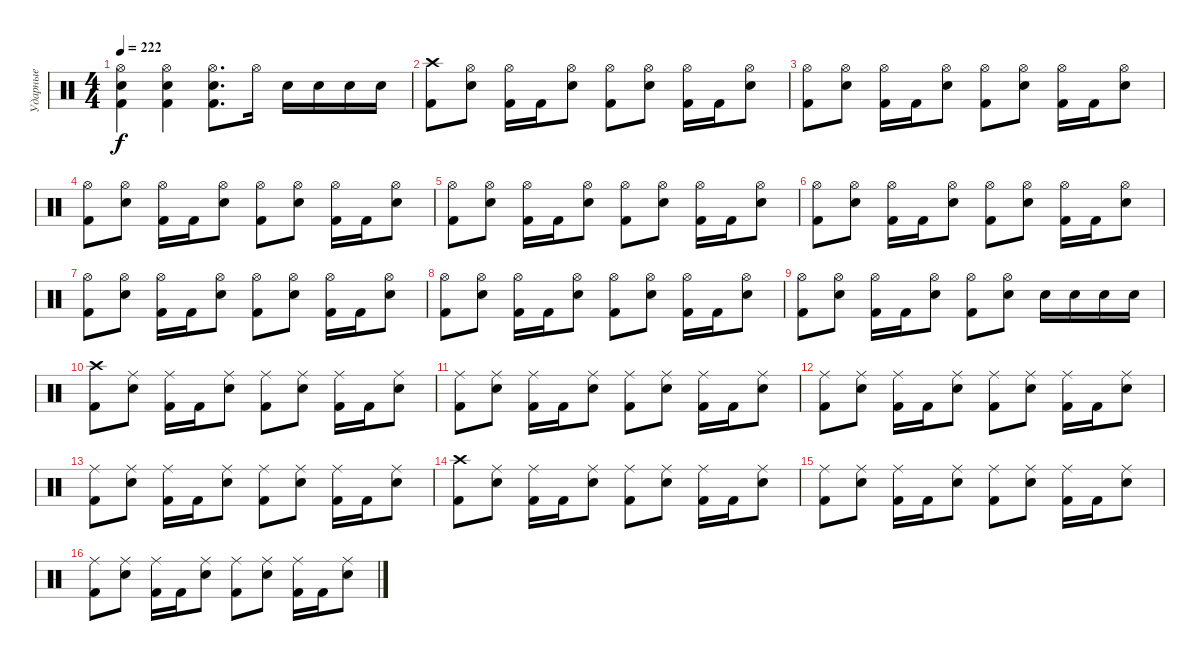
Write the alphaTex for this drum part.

\track ("Ударные" "Ударные") {instrument percussion}
\staff {score}
\articulation defaults
\ts (4 4)
\tempo 222
\clef neutral
\ks c
("Hi-Hat (open)" "Kick (hit) 2" "Electric Snare (hit)").4{dy f} ("Hi-Hat (open)" "Kick (hit) 2" "Electric Snare (hit)").4 ("Hi-Hat (open)" "Kick (hit) 2" "Electric Snare (hit)").8{d} "Hi-Hat (open)".16 "Electric Snare (hit)".16 "Electric Snare (hit)".16 "Electric Snare (hit)".16 "Electric Snare (hit)".16 |
("Crash high (hit)" "Kick (hit) 2").8 ("Hi-Hat (open)" "Electric Snare (hit)").8 ("Hi-Hat (open)" "Kick (hit) 2").16 "Kick (hit) 2".16 ("Hi-Hat (open)" "Electric Snare (hit)").8 ("Hi-Hat (open)" "Kick (hit) 2").8 ("Hi-Hat (open)" "Electric Snare (hit)").8 ("Hi-Hat (open)" "Kick (hit) 2").16 "Kick (hit) 2".16 ("Hi-Hat (open)" "Electric Snare (hit)").8 |
("Hi-Hat (open)" "Kick (hit) 2").8 ("Hi-Hat (open)" "Electric Snare (hit)").8 ("Hi-Hat (open)" "Kick (hit) 2").16 "Kick (hit) 2".16 ("Hi-Hat (open)" "Electric Snare (hit)").8 ("Hi-Hat (open)" "Kick (hit) 2").8 ("Hi-Hat (open)" "Electric Snare (hit)").8 ("Hi-Hat (open)" "Kick (hit) 2").16 "Kick (hit) 2".16 ("Hi-Hat (open)" "Electric Snare (hit)").8 |
("Hi-Hat (open)" "Kick (hit) 2").8 ("Hi-Hat (open)" "Electric Snare (hit)").8 ("Hi-Hat (open)" "Kick (hit) 2").16 "Kick (hit) 2".16 ("Hi-Hat (open)" "Electric Snare (hit)").8 ("Hi-Hat (open)" "Kick (hit) 2").8 ("Hi-Hat (open)" "Electric Snare (hit)").8 ("Hi-Hat (open)" "Kick (hit) 2").16 "Kick (hit) 2".16 ("Hi-Hat (open)" "Electric Snare (hit)").8 |
("Hi-Hat (open)" "Kick (hit) 2").8 ("Hi-Hat (open)" "Electric Snare (hit)").8 ("Hi-Hat (open)" "Kick (hit) 2").16 "Kick (hit) 2".16 ("Hi-Hat (open)" "Electric Snare (hit)").8 ("Hi-Hat (open)" "Kick (hit) 2").8 ("Hi-Hat (open)" "Electric Snare (hit)").8 ("Hi-Hat (open)" "Kick (hit) 2").16 "Kick (hit) 2".16 ("Hi-Hat (open)" "Electric Snare (hit)").8 |
("Hi-Hat (open)" "Kick (hit) 2").8 ("Hi-Hat (open)" "Electric Snare (hit)").8 ("Hi-Hat (open)" "Kick (hit) 2").16 "Kick (hit) 2".16 ("Hi-Hat (open)" "Electric Snare (hit)").8 ("Hi-Hat (open)" "Kick (hit) 2").8 ("Hi-Hat (open)" "Electric Snare (hit)").8 ("Hi-Hat (open)" "Kick (hit) 2").16 "Kick (hit) 2".16 ("Hi-Hat (open)" "Electric Snare (hit)").8 |
("Hi-Hat (open)" "Kick (hit) 2").8 ("Hi-Hat (open)" "Electric Snare (hit)").8 ("Hi-Hat (open)" "Kick (hit) 2").16 "Kick (hit) 2".16 ("Hi-Hat (open)" "Electric Snare (hit)").8 ("Hi-Hat (open)" "Kick (hit) 2").8 ("Hi-Hat (open)" "Electric Snare (hit)").8 ("Hi-Hat (open)" "Kick (hit) 2").16 "Kick (hit) 2".16 ("Hi-Hat (open)" "Electric Snare (hit)").8 |
("Hi-Hat (open)" "Kick (hit) 2").8 ("Hi-Hat (open)" "Electric Snare (hit)").8 ("Hi-Hat (open)" "Kick (hit) 2").16 "Kick (hit) 2".16 ("Hi-Hat (open)" "Electric Snare (hit)").8 ("Hi-Hat (open)" "Kick (hit) 2").8 ("Hi-Hat (open)" "Electric Snare (hit)").8 ("Hi-Hat (open)" "Kick (hit) 2").16 "Kick (hit) 2".16 ("Hi-Hat (open)" "Electric Snare (hit)").8 |
("Hi-Hat (open)" "Kick (hit) 2").8 ("Hi-Hat (open)" "Electric Snare (hit)").8 ("Hi-Hat (open)" "Kick (hit) 2").16 "Kick (hit) 2".16 ("Hi-Hat (open)" "Electric Snare (hit)").8 ("Hi-Hat (open)" "Kick (hit) 2").8 ("Hi-Hat (open)" "Electric Snare (hit)").8 "Electric Snare (hit)".16 "Electric Snare (hit)".16 "Electric Snare (hit)".16 "Electric Snare (hit)".16 |
("Crash high (hit)" "Kick (hit) 2").8 ("Ride (middle)" "Electric Snare (hit)").8 ("Ride (middle)" "Kick (hit) 2").16 "Kick (hit) 2".16 ("Ride (middle)" "Electric Snare (hit)").8 ("Ride (middle)" "Kick (hit) 2").8 ("Ride (middle)" "Electric Snare (hit)").8 ("Ride (middle)" "Kick (hit) 2").16 "Kick (hit) 2".16 ("Ride (middle)" "Electric Snare (hit)").8 |
("Ride (middle)" "Kick (hit) 2").8 ("Ride (middle)" "Electric Snare (hit)").8 ("Ride (middle)" "Kick (hit) 2").16 "Kick (hit) 2".16 ("Ride (middle)" "Electric Snare (hit)").8 ("Ride (middle)" "Kick (hit) 2").8 ("Ride (middle)" "Electric Snare (hit)").8 ("Ride (middle)" "Kick (hit) 2").16 "Kick (hit) 2".16 ("Ride (middle)" "Electric Snare (hit)").8 |
("Ride (middle)" "Kick (hit) 2").8 ("Ride (middle)" "Electric Snare (hit)").8 ("Ride (middle)" "Kick (hit) 2").16 "Kick (hit) 2".16 ("Ride (middle)" "Electric Snare (hit)").8 ("Ride (middle)" "Kick (hit) 2").8 ("Ride (middle)" "Electric Snare (hit)").8 ("Ride (middle)" "Kick (hit) 2").16 "Kick (hit) 2".16 ("Ride (middle)" "Electric Snare (hit)").8 |
("Ride (middle)" "Kick (hit) 2").8 ("Ride (middle)" "Electric Snare (hit)").8 ("Ride (middle)" "Kick (hit) 2").16 "Kick (hit) 2".16 ("Ride (middle)" "Electric Snare (hit)").8 ("Ride (middle)" "Kick (hit) 2").8 ("Ride (middle)" "Electric Snare (hit)").8 ("Ride (middle)" "Kick (hit) 2").16 "Kick (hit) 2".16 ("Ride (middle)" "Electric Snare (hit)").8 |
("Crash high (hit)" "Kick (hit) 2").8 ("Ride (middle)" "Electric Snare (hit)").8 ("Ride (middle)" "Kick (hit) 2").16 "Kick (hit) 2".16 ("Ride (middle)" "Electric Snare (hit)").8 ("Ride (middle)" "Kick (hit) 2").8 ("Ride (middle)" "Electric Snare (hit)").8 ("Ride (middle)" "Kick (hit) 2").16 "Kick (hit) 2".16 ("Ride (middle)" "Electric Snare (hit)").8 |
("Ride (middle)" "Kick (hit) 2").8 ("Ride (middle)" "Electric Snare (hit)").8 ("Ride (middle)" "Kick (hit) 2").16 "Kick (hit) 2".16 ("Ride (middle)" "Electric Snare (hit)").8 ("Ride (middle)" "Kick (hit) 2").8 ("Ride (middle)" "Electric Snare (hit)").8 ("Ride (middle)" "Kick (hit) 2").16 "Kick (hit) 2".16 ("Ride (middle)" "Electric Snare (hit)").8 |
("Ride (middle)" "Kick (hit) 2").8 ("Ride (middle)" "Electric Snare (hit)").8 ("Ride (middle)" "Kick (hit) 2").16 "Kick (hit) 2".16 ("Ride (middle)" "Electric Snare (hit)").8 ("Ride (middle)" "Kick (hit) 2").8 ("Ride (middle)" "Electric Snare (hit)").8 ("Ride (middle)" "Kick (hit) 2").16 "Kick (hit) 2".16 ("Ride (middle)" "Electric Snare (hit)").8
